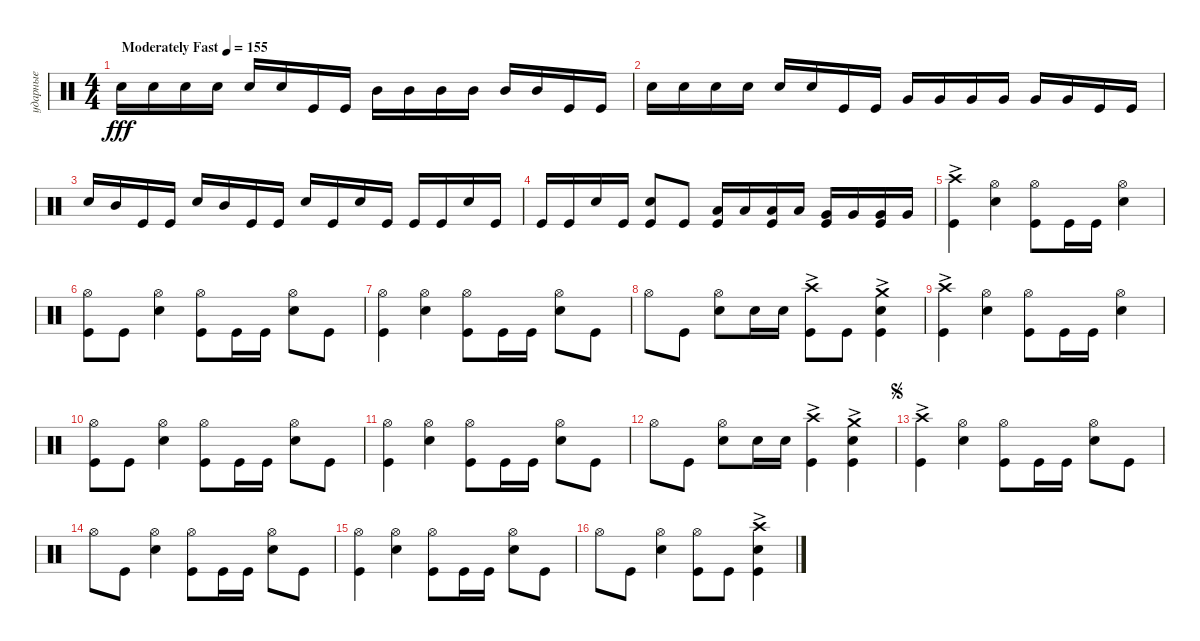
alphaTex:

\track ("ударные" "ударные") {instrument percussion}
\staff {score}
\articulation defaults
\ts (4 4)
\tempo (155 "Moderately Fast")
\clef neutral
\ks aminor "Snare (hit) 2".16{dy fff} "Snare (hit) 2".16 "Snare (hit) 2".16 "Snare (hit) 2".16 "Snare (hit) 2".16 "Snare (hit) 2".16 "Kick (hit)".16 "Kick (hit)".16 "Mid Tom (hit)".16 "Mid Tom (hit)".16 "Mid Tom (hit)".16 "Mid Tom (hit)".16 "Mid Tom (hit)".16 "Mid Tom (hit)".16 "Kick (hit)".16 "Kick (hit)".16
|
"Snare (hit) 2".16 "Snare (hit) 2".16 "Snare (hit) 2".16 "Snare (hit) 2".16 "Snare (hit) 2".16 "Snare (hit) 2".16 "Kick (hit)".16 "Kick (hit)".16 "Very Low Tom (hit)".16 "Very Low Tom (hit)".16 "Very Low Tom (hit)".16 "Very Low Tom (hit)".16 "Very Low Tom (hit)".16 "Very Low Tom (hit)".16 "Kick (hit)".16 "Kick (hit)".16 |
"Snare (hit) 2".16 "Mid Tom (hit)".16 "Kick (hit)".16 "Kick (hit)".16 "Snare (hit) 2".16 "Mid Tom (hit)".16 "Kick (hit)".16 "Kick (hit)".16 "Snare (hit) 2".16 "Kick (hit)".16 "Snare (hit) 2".16 "Kick (hit)".16 "Kick (hit)".16 "Kick (hit)".16 "Snare (hit) 2".16 "Kick (hit)".16 |
"Kick (hit)".16 "Kick (hit)".16 "Snare (hit) 2".16 "Kick (hit)".16 ("Snare (hit) 2" "Kick (hit)").8 "Kick (hit)".8 ("Low Tom (hit)" "Kick (hit)").16 "Low Tom (hit)".16 ("Low Tom (hit)" "Kick (hit)").16 "Low Tom (hit)".16 ("Very Low Tom (hit)" "Kick (hit)").16 "Very Low Tom (hit)".16 ("Very Low Tom (hit)" "Kick (hit)").16 "Very Low Tom (hit)".16 |
("Kick (hit)" "Crash high (hit)"{ac}).4 ("Snare (hit) 2" "Hi-Hat (open)").4 ("Kick (hit)" "Hi-Hat (open)").8 "Kick (hit)".16 "Kick (hit)".16 ("Snare (hit) 2" "Hi-Hat (open)").4 |
("Kick (hit)" "Hi-Hat (open)").8 "Kick (hit)".8 ("Snare (hit) 2" "Hi-Hat (open)").4 ("Kick (hit)" "Hi-Hat (open)").8 "Kick (hit)".16 "Kick (hit)".16 ("Snare (hit) 2" "Hi-Hat (open)").8 "Kick (hit)".8 |
("Kick (hit)" "Hi-Hat (open)").4 ("Snare (hit) 2" "Hi-Hat (open)").4 ("Kick (hit)" "Hi-Hat (open)").8 "Kick (hit)".16 "Kick (hit)".16 ("Snare (hit) 2" "Hi-Hat (open)").8 "Kick (hit)".8 |
"Hi-Hat (open)".8 "Kick (hit)".8 ("Snare (hit) 2" "Hi-Hat (open)").8 "Snare (hit) 2".16 "Snare (hit) 2".16 ("Kick (hit)" "Crash high (hit)"{ac}).8 "Kick (hit)".8 ("Snare (hit) 2" "Kick (hit)" "Crash medium (hit)"{ac}).4 |
("Kick (hit)" "Crash high (hit)"{ac}).4 ("Snare (hit) 2" "Hi-Hat (open)").4 ("Kick (hit)" "Hi-Hat (open)").8 "Kick (hit)".16 "Kick (hit)".16 ("Snare (hit) 2" "Hi-Hat (open)").4 |
("Kick (hit)" "Hi-Hat (open)").8 "Kick (hit)".8 ("Snare (hit) 2" "Hi-Hat (open)").4 ("Kick (hit)" "Hi-Hat (open)").8 "Kick (hit)".16 "Kick (hit)".16 ("Snare (hit) 2" "Hi-Hat (open)").8 "Kick (hit)".8 |
("Kick (hit)" "Hi-Hat (open)").4 ("Snare (hit) 2" "Hi-Hat (open)").4 ("Kick (hit)" "Hi-Hat (open)").8 "Kick (hit)".16 "Kick (hit)".16 ("Snare (hit) 2" "Hi-Hat (open)").8 "Kick (hit)".8 |
"Hi-Hat (open)".8 "Kick (hit)".8 ("Snare (hit) 2" "Hi-Hat (open)").8 "Snare (hit) 2".16 "Snare (hit) 2".16 ("Kick (hit)" "Crash high (hit)"{ac}).4 ("Snare (hit) 2" "Kick (hit)" "Crash medium (hit)"{ac}).4 |
\jump segno
("Kick (hit)" "Crash high (hit)"{ac}).4 ("Snare (hit) 2" "Hi-Hat (open)").4 ("Kick (hit)" "Hi-Hat (open)").8 "Kick (hit)".16 "Kick (hit)".16 ("Snare (hit) 2" "Hi-Hat (open)").8 "Kick (hit)".8 |
"Hi-Hat (open)".8 "Kick (hit)".8 ("Snare (hit) 2" "Hi-Hat (open)").4 ("Kick (hit)" "Hi-Hat (open)").8 "Kick (hit)".16 "Kick (hit)".16 ("Snare (hit) 2" "Hi-Hat (open)").8 "Kick (hit)".8 |
("Kick (hit)" "Hi-Hat (open)").4 ("Snare (hit) 2" "Hi-Hat (open)").4 ("Kick (hit)" "Hi-Hat (open)").8 "Kick (hit)".16 "Kick (hit)".16 ("Snare (hit) 2" "Hi-Hat (open)").8 "Kick (hit)".8 |
"Hi-Hat (open)".8 "Kick (hit)".8 ("Snare (hit) 2" "Hi-Hat (open)").4 ("Kick (hit)" "Hi-Hat (open)").8 "Kick (hit)".8 ("Kick (hit)" "Snare (hit) 2" "Crash high (hit)"{ac}).4
